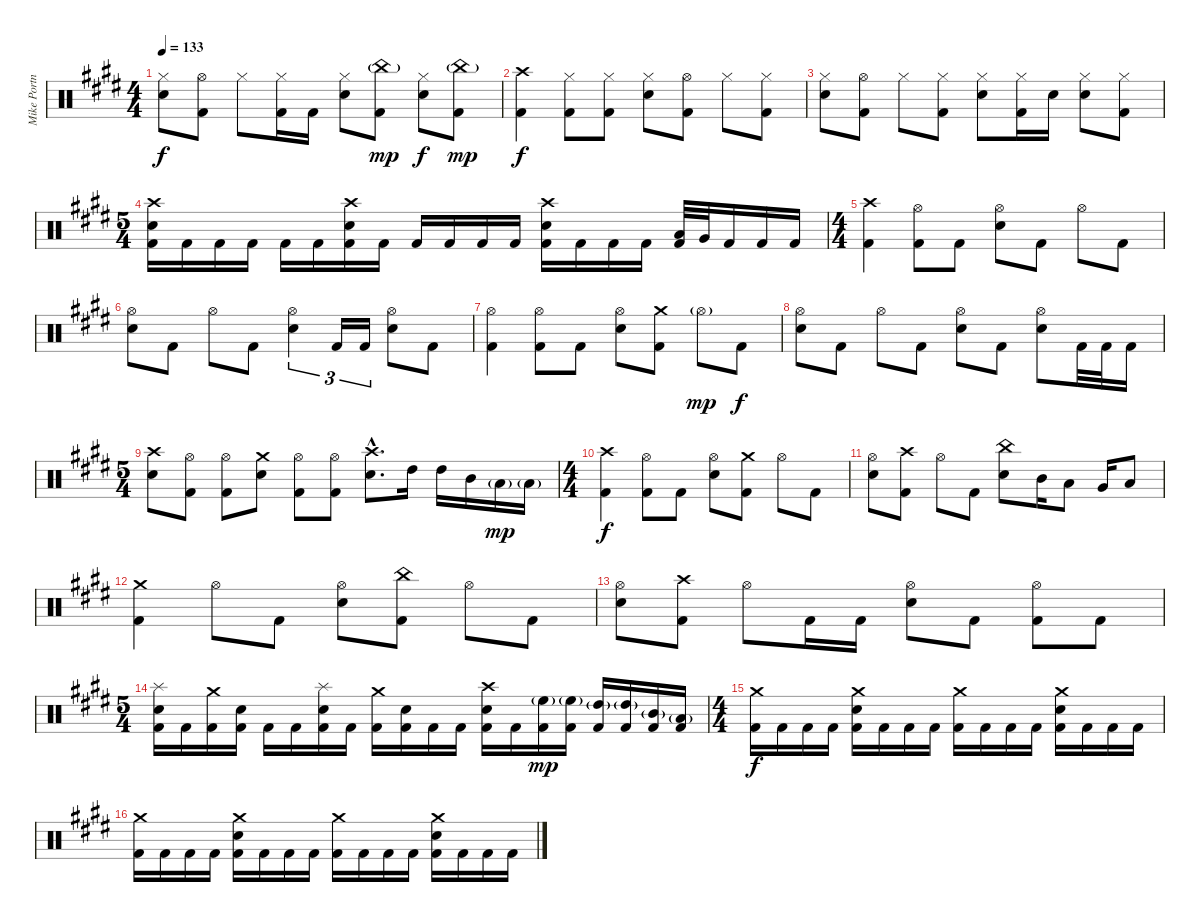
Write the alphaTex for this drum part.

\track ("Mike Portnoy" "Mike Portn") {instrument percussion}
\staff {score}
\articulation defaults
\ts (4 4)
\tempo 133
\clef neutral
\ks e
("Hi-Hat (closed)" "Snare (hit) 2").8{dy f} ("Hi-Hat (open)" "Kick (hit) 2").8 "Hi-Hat (closed)".8 ("Hi-Hat (closed)" "Kick (hit) 2").16 "Kick (hit) 2".16 ("Hi-Hat (closed)" "Snare (hit) 2").8 ("China (hit)"{g} "Kick (hit) 2").8{dy mp} ("Hi-Hat (closed)" "Snare (hit) 2").8{dy f} ("China (hit)"{g} "Kick (hit) 2").8{dy mp} |
("Crash high (hit)" "Kick (hit) 2").4{dy f} ("Hi-Hat (closed)" "Kick (hit) 2").8 ("Hi-Hat (closed)" "Kick (hit) 2").8 ("Hi-Hat (closed)" "Snare (hit) 2").8 ("Hi-Hat (open)" "Kick (hit) 2").8 "Hi-Hat (closed)".8 ("Hi-Hat (closed)" "Kick (hit) 2").8 |
("Hi-Hat (closed)" "Snare (hit) 2").8 ("Hi-Hat (open)" "Kick (hit) 2").8 "Hi-Hat (closed)".8 ("Hi-Hat (closed)" "Kick (hit) 2").8 ("Hi-Hat (closed)" "Snare (hit) 2").8 ("Hi-Hat (closed)" "Kick (hit) 2").16 "Snare (hit) 2".16 ("Hi-Hat (closed)" "Snare (hit) 2").8 ("Hi-Hat (closed)" "Kick (hit) 2").8 |
\ts (5 4)
("Crash high (hit)" "Snare (hit) 2" "Kick (hit) 2").16 "Kick (hit) 2".16 "Kick (hit) 2".16 "Kick (hit) 2".16 "Kick (hit) 2".16 "Kick (hit) 2".16 ("Crash high (hit)" "Snare (hit) 2" "Kick (hit) 2").16 "Kick (hit) 2".16 "Kick (hit) 2".16 "Kick (hit) 2".16 "Kick (hit) 2".16 "Kick (hit) 2".16 ("Crash high (hit)" "Snare (hit) 2" "Kick (hit) 2").16 "Kick (hit) 2".16 "Kick (hit) 2".16 "Kick (hit) 2".16 ("Low Tom (hit)" "Kick (hit) 2").32 "Very Low Tom (hit)".32 "Kick (hit) 2".16 "Kick (hit) 2".16 "Kick (hit) 2".16 |
\ts (4 4)
("Crash high (hit)" "Kick (hit) 2").4 ("Hi-Hat (open)" "Kick (hit) 2").8 "Kick (hit) 2".8 ("Hi-Hat (open)" "Snare (hit) 2").8 "Kick (hit) 2".8 "Hi-Hat (open)".8 "Kick (hit) 2".8 |
("Hi-Hat (open)" "Snare (hit) 2").8 "Kick (hit) 2".8 "Hi-Hat (open)".8 "Kick (hit) 2".8 ("Hi-Hat (open)" "Snare (hit) 2").4{tu (3 2)} "Kick (hit) 2".16{tu (3 2)} "Kick (hit) 2".16{tu (3 2)} ("Hi-Hat (open)" "Snare (hit) 2").8 "Kick (hit) 2".8 |
("Hi-Hat (open)" "Kick (hit) 2").4 ("Hi-Hat (open)" "Kick (hit) 2").8 "Kick (hit) 2".8 ("Hi-Hat (open)" "Snare (hit) 2").8 ("Crash medium (hit)" "Kick (hit) 2").8 "Hi-Hat (open)"{g}.8{dy mp} "Kick (hit) 2".8{dy f} |
("Hi-Hat (open)" "Snare (hit) 2").8 "Kick (hit) 2".8 "Hi-Hat (open)".8 "Kick (hit) 2".8 ("Hi-Hat (open)" "Snare (hit) 2").8 "Kick (hit) 2".8 ("Hi-Hat (open)" "Snare (hit) 2").8 "Kick (hit) 2".32 "Kick (hit) 2".32 "Kick (hit) 2".16 |
\ts (5 4)
("Crash high (hit)" "Snare (hit) 2").8 ("Hi-Hat (open)" "Kick (hit) 2").8 ("Hi-Hat (open)" "Kick (hit) 2").8 ("Crash medium (hit)" "Snare (hit) 2").8 ("Hi-Hat (open)" "Kick (hit) 2").8 ("Hi-Hat (open)" "Kick (hit) 2").8 ("Crash high (hit)"{hac} "Snare (hit) 2"{hac}).8{d} "High Tom (hit)".16 "High Tom (hit)".16 "Mid Tom (hit)".16 "Low Tom (hit)"{g}.16{dy mp} "Low Tom (hit)"{g}.16 |
\ts (4 4)
("Crash high (hit)" "Kick (hit) 2").4{dy f} ("Hi-Hat (open)" "Kick (hit) 2").8 "Kick (hit) 2".8 ("Hi-Hat (open)" "Snare (hit) 2").8 ("Crash medium (hit)" "Kick (hit) 2").8 "Hi-Hat (open)".8 "Kick (hit) 2".8 |
("Hi-Hat (open)" "Snare (hit) 2").8 ("Crash high (hit)" "Kick (hit) 2").8 "Hi-Hat (open)".8 "Kick (hit) 2".8 ("China (hit)" "Snare (hit) 2").8 "Mid Tom (hit)".16 "Low Tom (hit)".8 "Very Low Tom (hit)".16 "Low Floor Tom (hit)".8 |
("Crash medium (hit)" "Kick (hit) 2").4 "Hi-Hat (open)".8 "Kick (hit) 2".8 ("Hi-Hat (open)" "Snare (hit) 2").8 ("China (hit)" "Kick (hit) 2").8 "Hi-Hat (open)".8 "Kick (hit) 2".8 |
("Hi-Hat (open)" "Snare (hit) 2").8 ("Crash high (hit)" "Kick (hit) 2").8 "Hi-Hat (open)".8 "Kick (hit) 2".16 "Kick (hit) 2".16 ("Hi-Hat (open)" "Snare (hit) 2").8 "Kick (hit) 2".8 ("Hi-Hat (open)" "Kick (hit) 2").8 "Kick (hit) 2".8 |
\ts (5 4)
("Splash (hit)" "Snare (hit) 2" "Kick (hit) 2").16 "Kick (hit) 2".16 ("Crash medium (hit)" "Kick (hit) 2").16 ("Snare (hit) 2" "Kick (hit) 2").16 "Kick (hit) 2".16 "Kick (hit) 2".16 ("Splash (hit)" "Snare (hit) 2" "Kick (hit) 2").16 "Kick (hit) 2".16 ("Crash medium (hit)" "Kick (hit) 2").16 ("Snare (hit) 2" "Kick (hit) 2").16 "Kick (hit) 2".16 "Kick (hit) 2".16 ("Crash high (hit)" "Snare (hit) 2" "Kick (hit) 2").16 "Kick (hit) 2".16 ("High Floor Tom (hit)"{g} "Kick (hit) 2").16{dy mp} ("High Floor Tom (hit)"{g} "Kick (hit) 2").16 ("High Tom (hit)"{g} "Kick (hit) 2").16 ("High Tom (hit)"{g} "Kick (hit) 2").16 ("Mid Tom (hit)"{g} "Kick (hit) 2").16 ("Low Tom (hit)"{g} "Kick (hit) 2").16 |
\ts (4 4)
("Crash medium (hit)" "Kick (hit) 2").16{dy f} "Kick (hit) 2".16 "Kick (hit) 2".16 "Kick (hit) 2".16 ("Crash medium (hit)" "Snare (hit) 2" "Kick (hit) 2").16 "Kick (hit) 2".16 "Kick (hit) 2".16 "Kick (hit) 2".16 ("Crash medium (hit)" "Kick (hit) 2").16 "Kick (hit) 2".16 "Kick (hit) 2".16 "Kick (hit) 2".16 ("Crash medium (hit)" "Snare (hit) 2" "Kick (hit) 2").16 "Kick (hit) 2".16 "Kick (hit) 2".16 "Kick (hit) 2".16 |
("Crash medium (hit)" "Kick (hit) 2").16 "Kick (hit) 2".16 "Kick (hit) 2".16 "Kick (hit) 2".16 ("Crash medium (hit)" "Snare (hit) 2" "Kick (hit) 2").16 "Kick (hit) 2".16 "Kick (hit) 2".16 "Kick (hit) 2".16 ("Crash medium (hit)" "Kick (hit) 2").16 "Kick (hit) 2".16 "Kick (hit) 2".16 "Kick (hit) 2".16 ("Crash medium (hit)" "Snare (hit) 2" "Kick (hit) 2").16 "Kick (hit) 2".16 "Kick (hit) 2".16 "Kick (hit) 2".16
